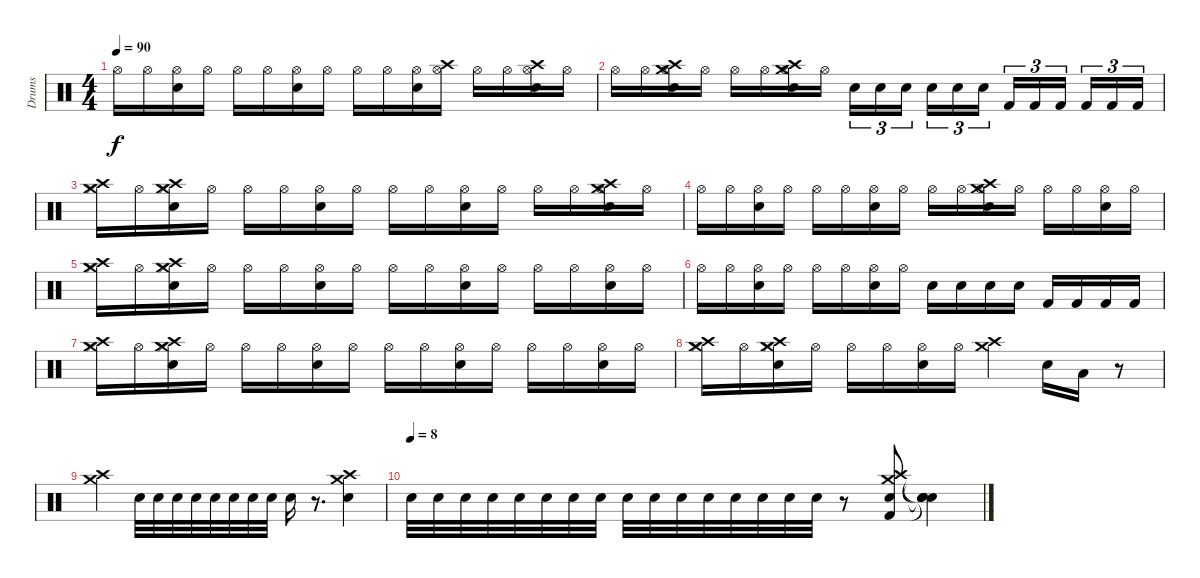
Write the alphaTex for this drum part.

\track ("Drums" "Drums") {instrument percussion}
\staff {score}
\articulation defaults
\ts (4 4)
\tempo 90
\clef neutral
\ks c "Hi-Hat (open)".16{dy f} "Hi-Hat (open)".16
("Snare (hit) 2" "Hi-Hat (open)").16 "Hi-Hat (open)".16 "Hi-Hat (open)".16 "Hi-Hat (open)".16 ("Snare (hit) 2" "Hi-Hat (open)").16 "Hi-Hat (open)".16 "Hi-Hat (open)".16 "Hi-Hat (open)".16 ("Snare (hit) 2" "Hi-Hat (open)").16 ("Crash high (hit)" "Hi-Hat (open)").16 "Hi-Hat (open)".16 "Hi-Hat (open)".16 ("Snare (hit) 2" "Hi-Hat (open)" "Crash high (hit)").16 "Hi-Hat (open)".16 |
"Hi-Hat (open)".16 "Hi-Hat (open)".16 ("Snare (hit) 2" "Hi-Hat (open)" "Crash high (hit)" "Crash medium (hit)").16 "Hi-Hat (open)".16 "Hi-Hat (open)".16 "Hi-Hat (open)".16 ("Snare (hit) 2" "Hi-Hat (open)" "Crash high (hit)" "Crash medium (hit)").16 "Hi-Hat (open)".16 "Snare (hit) 2".16{tu (3 2)} "Snare (hit) 2".16{tu (3 2)} "Snare (hit) 2".16{tu (3 2) beam splitsecondary} "Snare (hit) 2".16{tu (3 2)} "Snare (hit) 2".16{tu (3 2)} "Snare (hit) 2".16{tu (3 2)} "Kick (hit) 2".16{tu (3 2)} "Kick (hit) 2".16{tu (3 2)} "Kick (hit) 2".16{tu (3 2) beam splitsecondary} "Kick (hit) 2".16{tu (3 2)} "Kick (hit) 2".16{tu (3 2)} "Kick (hit) 2".16{tu (3 2)} |
("Crash high (hit)" "Hi-Hat (closed)" "Crash medium (hit)").16 "Hi-Hat (open)".16 ("Snare (hit) 2" "Hi-Hat (closed)" "Crash high (hit)" "Crash medium (hit)").16 "Hi-Hat (open)".16 "Hi-Hat (open)".16 "Hi-Hat (open)".16 ("Snare (hit) 2" "Hi-Hat (open)").16 "Hi-Hat (open)".16 "Hi-Hat (open)".16 "Hi-Hat (open)".16 ("Snare (hit) 2" "Hi-Hat (open)").16 "Hi-Hat (open)".16 "Hi-Hat (open)".16 "Hi-Hat (open)".16 ("Snare (hit) 2" "Hi-Hat (open)" "Crash medium (hit)" "Crash high (hit)").16 "Hi-Hat (open)".16 |
"Hi-Hat (open)".16 "Hi-Hat (open)".16 ("Snare (hit) 2" "Hi-Hat (open)").16 "Hi-Hat (open)".16 "Hi-Hat (open)".16 "Hi-Hat (open)".16 ("Snare (hit) 2" "Hi-Hat (open)").16 "Hi-Hat (open)".16 "Hi-Hat (open)".16 "Hi-Hat (open)".16 ("Snare (hit) 2" "Hi-Hat (open)" "Crash medium (hit)" "Crash high (hit)").16 "Hi-Hat (open)".16 "Hi-Hat (open)".16 "Hi-Hat (open)".16 ("Snare (hit) 2" "Hi-Hat (open)").16 "Hi-Hat (open)".16 |
("Crash high (hit)" "Hi-Hat (closed)" "Crash medium (hit)").16 "Hi-Hat (open)".16 ("Snare (hit) 2" "Hi-Hat (closed)" "Crash high (hit)" "Crash medium (hit)").16 "Hi-Hat (open)".16 "Hi-Hat (open)".16 "Hi-Hat (open)".16 ("Snare (hit) 2" "Hi-Hat (open)").16 "Hi-Hat (open)".16 "Hi-Hat (open)".16 "Hi-Hat (open)".16 ("Snare (hit) 2" "Hi-Hat (open)").16 "Hi-Hat (open)".16 "Hi-Hat (open)".16 "Hi-Hat (open)".16 ("Snare (hit) 2" "Hi-Hat (open)").16 "Hi-Hat (open)".16 |
"Hi-Hat (open)".16 "Hi-Hat (open)".16 ("Snare (hit) 2" "Hi-Hat (open)").16 "Hi-Hat (open)".16 "Hi-Hat (open)".16 "Hi-Hat (open)".16 ("Snare (hit) 2" "Hi-Hat (open)").16 "Hi-Hat (open)".16 "Snare (hit) 2".16 "Snare (hit) 2".16 "Snare (hit) 2".16 "Snare (hit) 2".16 "Kick (hit) 2".16 "Kick (hit) 2".16 "Kick (hit) 2".16 "Kick (hit) 2".16 |
("Crash high (hit)" "Hi-Hat (closed)" "Crash medium (hit)").16 "Hi-Hat (open)".16 ("Snare (hit) 2" "Hi-Hat (closed)" "Crash high (hit)" "Crash medium (hit)").16 "Hi-Hat (open)".16 "Hi-Hat (open)".16 "Hi-Hat (open)".16 ("Snare (hit) 2" "Hi-Hat (open)").16 "Hi-Hat (open)".16 "Hi-Hat (open)".16 "Hi-Hat (open)".16 ("Snare (hit) 2" "Hi-Hat (open)").16 "Hi-Hat (open)".16 "Hi-Hat (open)".16 "Hi-Hat (open)".16 ("Snare (hit) 2" "Hi-Hat (open)").16 "Hi-Hat (open)".16 |
("Crash high (hit)" "Hi-Hat (closed)" "Crash medium (hit)").16 "Hi-Hat (open)".16 ("Snare (hit) 2" "Hi-Hat (closed)" "Crash high (hit)" "Crash medium (hit)").16 "Hi-Hat (open)".16 "Hi-Hat (open)".16 "Hi-Hat (open)".16 ("Snare (hit) 2" "Hi-Hat (open)").16 "Hi-Hat (open)".16 ("Crash high (hit)" "Crash medium (hit)").4 "Snare (hit) 2".16 "Low Tom (hit)".16 r.8 |
("Crash high (hit)" "Crash medium (hit)").4 "Snare (hit) 2".32 "Snare (hit) 2".32 "Snare (hit) 2".32 "Snare (hit) 2".32 "Snare (hit) 2".32 "Snare (hit) 2".32 "Snare (hit) 2".32 "Snare (hit) 2".32 "Snare (hit) 2".16 r.8{d} ("Snare (hit) 2" "Crash high (hit)" "Crash medium (hit)").4 |
\tempo (8)
"Snare (hit) 2".32 "Snare (hit) 2".32 "Snare (hit) 2".32 "Snare (hit) 2".32 "Snare (hit) 2".32 "Snare (hit) 2".32 "Snare (hit) 2".32 "Snare (hit) 2".32 "Snare (hit) 2".32 "Snare (hit) 2".32 "Snare (hit) 2".32 "Snare (hit) 2".32 "Snare (hit) 2".32 "Snare (hit) 2".32 "Snare (hit) 2".32 "Snare (hit) 2".32 r.8 ("Crash high (hit)" "Crash medium (hit)" "Kick (hit) 2" "Snare (hit) 2").8 ("Snare (hit)"{t} "Snare (hit)"{t} "Snare (hit)"{t} "Snare (hit)"{t}).4
